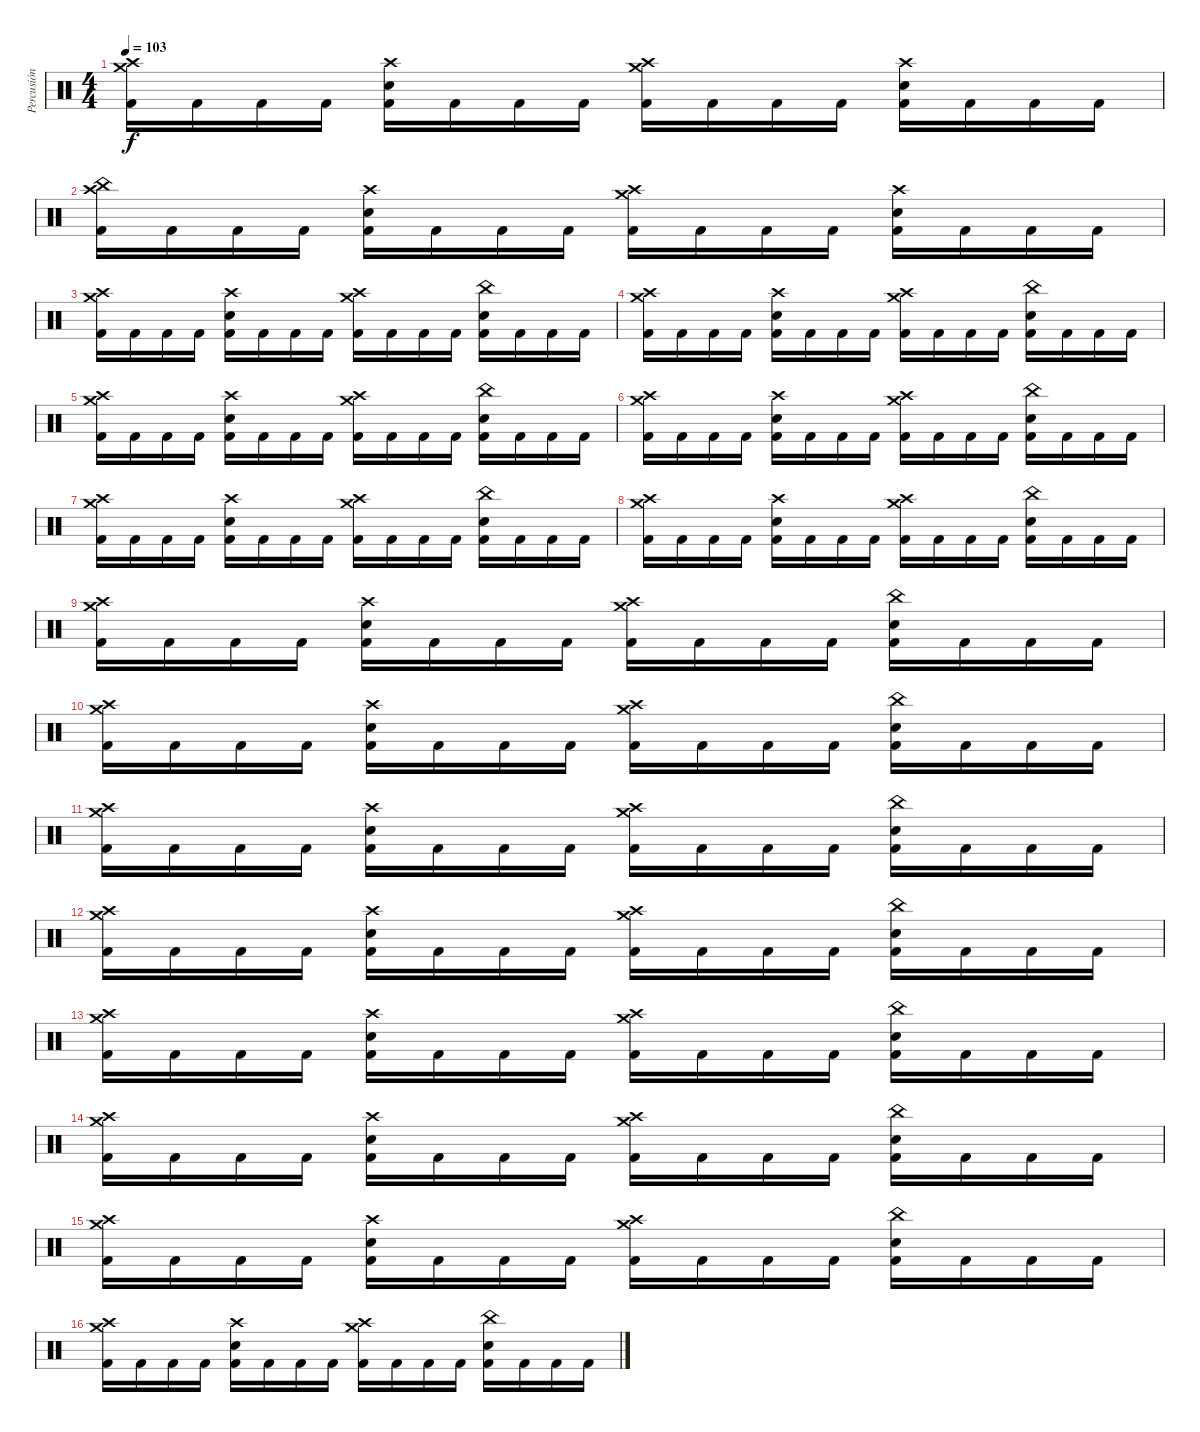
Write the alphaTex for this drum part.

\track ("Percusión" "Percusión") {instrument percussion}
\staff {score}
\articulation defaults
\ts (4 4)
\tempo 103
\clef neutral
\ks c
("Crash high (hit)" "Crash medium (hit)" "Kick (hit) 2").16{dy f} "Kick (hit) 2".16 "Kick (hit) 2".16 "Kick (hit) 2".16 ("Snare (hit) 2" "Crash high (hit)" "Kick (hit) 2").16 "Kick (hit) 2".16 "Kick (hit) 2".16 "Kick (hit) 2".16 ("Crash high (hit)" "Crash medium (hit)" "Kick (hit) 2").16 "Kick (hit) 2".16 "Kick (hit) 2".16 "Kick (hit) 2".16 ("Snare (hit) 2" "Crash high (hit)" "Kick (hit) 2").16 "Kick (hit) 2".16 "Kick (hit) 2".16 "Kick (hit) 2".16 |
("Crash high (hit)" "China (hit)" "Kick (hit) 2").16 "Kick (hit) 2".16 "Kick (hit) 2".16 "Kick (hit) 2".16 ("Snare (hit) 2" "Crash high (hit)" "Kick (hit) 2").16 "Kick (hit) 2".16 "Kick (hit) 2".16 "Kick (hit) 2".16 ("Crash high (hit)" "Crash medium (hit)" "Kick (hit) 2").16 "Kick (hit) 2".16 "Kick (hit) 2".16 "Kick (hit) 2".16 ("Snare (hit) 2" "Crash high (hit)" "Kick (hit) 2").16 "Kick (hit) 2".16 "Kick (hit) 2".16 "Kick (hit) 2".16 |
("Crash high (hit)" "Crash medium (hit)" "Kick (hit) 2").16 "Kick (hit) 2".16 "Kick (hit) 2".16 "Kick (hit) 2".16 ("Snare (hit) 2" "Crash high (hit)" "Kick (hit) 2").16 "Kick (hit) 2".16 "Kick (hit) 2".16 "Kick (hit) 2".16 ("Crash high (hit)" "Crash medium (hit)" "Kick (hit) 2").16 "Kick (hit) 2".16 "Kick (hit) 2".16 "Kick (hit) 2".16 ("Snare (hit) 2" "China (hit)" "Kick (hit) 2").16 "Kick (hit) 2".16 "Kick (hit) 2".16 "Kick (hit) 2".16 |
("Crash high (hit)" "Crash medium (hit)" "Kick (hit) 2").16 "Kick (hit) 2".16 "Kick (hit) 2".16 "Kick (hit) 2".16 ("Snare (hit) 2" "Crash high (hit)" "Kick (hit) 2").16 "Kick (hit) 2".16 "Kick (hit) 2".16 "Kick (hit) 2".16 ("Crash high (hit)" "Crash medium (hit)" "Kick (hit) 2").16 "Kick (hit) 2".16 "Kick (hit) 2".16 "Kick (hit) 2".16 ("Snare (hit) 2" "China (hit)" "Kick (hit) 2").16 "Kick (hit) 2".16 "Kick (hit) 2".16 "Kick (hit) 2".16 |
("Crash high (hit)" "Crash medium (hit)" "Kick (hit) 2").16 "Kick (hit) 2".16 "Kick (hit) 2".16 "Kick (hit) 2".16 ("Snare (hit) 2" "Crash high (hit)" "Kick (hit) 2").16 "Kick (hit) 2".16 "Kick (hit) 2".16 "Kick (hit) 2".16 ("Crash high (hit)" "Crash medium (hit)" "Kick (hit) 2").16 "Kick (hit) 2".16 "Kick (hit) 2".16 "Kick (hit) 2".16 ("Snare (hit) 2" "China (hit)" "Kick (hit) 2").16 "Kick (hit) 2".16 "Kick (hit) 2".16 "Kick (hit) 2".16 |
("Crash high (hit)" "Crash medium (hit)" "Kick (hit) 2").16 "Kick (hit) 2".16 "Kick (hit) 2".16 "Kick (hit) 2".16 ("Snare (hit) 2" "Crash high (hit)" "Kick (hit) 2").16 "Kick (hit) 2".16 "Kick (hit) 2".16 "Kick (hit) 2".16 ("Crash high (hit)" "Crash medium (hit)" "Kick (hit) 2").16 "Kick (hit) 2".16 "Kick (hit) 2".16 "Kick (hit) 2".16 ("Snare (hit) 2" "China (hit)" "Kick (hit) 2").16 "Kick (hit) 2".16 "Kick (hit) 2".16 "Kick (hit) 2".16 |
("Crash high (hit)" "Crash medium (hit)" "Kick (hit) 2").16 "Kick (hit) 2".16 "Kick (hit) 2".16 "Kick (hit) 2".16 ("Snare (hit) 2" "Crash high (hit)" "Kick (hit) 2").16 "Kick (hit) 2".16 "Kick (hit) 2".16 "Kick (hit) 2".16 ("Crash high (hit)" "Crash medium (hit)" "Kick (hit) 2").16 "Kick (hit) 2".16 "Kick (hit) 2".16 "Kick (hit) 2".16 ("Snare (hit) 2" "China (hit)" "Kick (hit) 2").16 "Kick (hit) 2".16 "Kick (hit) 2".16 "Kick (hit) 2".16 |
("Crash high (hit)" "Crash medium (hit)" "Kick (hit) 2").16 "Kick (hit) 2".16 "Kick (hit) 2".16 "Kick (hit) 2".16 ("Snare (hit) 2" "Crash high (hit)" "Kick (hit) 2").16 "Kick (hit) 2".16 "Kick (hit) 2".16 "Kick (hit) 2".16 ("Crash high (hit)" "Crash medium (hit)" "Kick (hit) 2").16 "Kick (hit) 2".16 "Kick (hit) 2".16 "Kick (hit) 2".16 ("Snare (hit) 2" "China (hit)" "Kick (hit) 2").16 "Kick (hit) 2".16 "Kick (hit) 2".16 "Kick (hit) 2".16 |
("Crash high (hit)" "Crash medium (hit)" "Kick (hit) 2").16 "Kick (hit) 2".16 "Kick (hit) 2".16 "Kick (hit) 2".16 ("Snare (hit) 2" "Crash high (hit)" "Kick (hit) 2").16 "Kick (hit) 2".16 "Kick (hit) 2".16 "Kick (hit) 2".16 ("Crash high (hit)" "Crash medium (hit)" "Kick (hit) 2").16 "Kick (hit) 2".16 "Kick (hit) 2".16 "Kick (hit) 2".16 ("Snare (hit) 2" "China (hit)" "Kick (hit) 2").16 "Kick (hit) 2".16 "Kick (hit) 2".16 "Kick (hit) 2".16 |
("Crash high (hit)" "Crash medium (hit)" "Kick (hit) 2").16 "Kick (hit) 2".16 "Kick (hit) 2".16 "Kick (hit) 2".16 ("Snare (hit) 2" "Crash high (hit)" "Kick (hit) 2").16 "Kick (hit) 2".16 "Kick (hit) 2".16 "Kick (hit) 2".16 ("Crash high (hit)" "Crash medium (hit)" "Kick (hit) 2").16 "Kick (hit) 2".16 "Kick (hit) 2".16 "Kick (hit) 2".16 ("Snare (hit) 2" "China (hit)" "Kick (hit) 2").16 "Kick (hit) 2".16 "Kick (hit) 2".16 "Kick (hit) 2".16 |
("Crash high (hit)" "Crash medium (hit)" "Kick (hit) 2").16 "Kick (hit) 2".16 "Kick (hit) 2".16 "Kick (hit) 2".16 ("Snare (hit) 2" "Crash high (hit)" "Kick (hit) 2").16 "Kick (hit) 2".16 "Kick (hit) 2".16 "Kick (hit) 2".16 ("Crash high (hit)" "Crash medium (hit)" "Kick (hit) 2").16 "Kick (hit) 2".16 "Kick (hit) 2".16 "Kick (hit) 2".16 ("Snare (hit) 2" "China (hit)" "Kick (hit) 2").16 "Kick (hit) 2".16 "Kick (hit) 2".16 "Kick (hit) 2".16 |
("Crash high (hit)" "Crash medium (hit)" "Kick (hit) 2").16 "Kick (hit) 2".16 "Kick (hit) 2".16 "Kick (hit) 2".16 ("Snare (hit) 2" "Crash high (hit)" "Kick (hit) 2").16 "Kick (hit) 2".16 "Kick (hit) 2".16 "Kick (hit) 2".16 ("Crash high (hit)" "Crash medium (hit)" "Kick (hit) 2").16 "Kick (hit) 2".16 "Kick (hit) 2".16 "Kick (hit) 2".16 ("Snare (hit) 2" "China (hit)" "Kick (hit) 2").16 "Kick (hit) 2".16 "Kick (hit) 2".16 "Kick (hit) 2".16 |
("Crash high (hit)" "Crash medium (hit)" "Kick (hit) 2").16 "Kick (hit) 2".16 "Kick (hit) 2".16 "Kick (hit) 2".16 ("Snare (hit) 2" "Crash high (hit)" "Kick (hit) 2").16 "Kick (hit) 2".16 "Kick (hit) 2".16 "Kick (hit) 2".16 ("Crash high (hit)" "Crash medium (hit)" "Kick (hit) 2").16 "Kick (hit) 2".16 "Kick (hit) 2".16 "Kick (hit) 2".16 ("Snare (hit) 2" "China (hit)" "Kick (hit) 2").16 "Kick (hit) 2".16 "Kick (hit) 2".16 "Kick (hit) 2".16 |
("Crash high (hit)" "Crash medium (hit)" "Kick (hit) 2").16 "Kick (hit) 2".16 "Kick (hit) 2".16 "Kick (hit) 2".16 ("Snare (hit) 2" "Crash high (hit)" "Kick (hit) 2").16 "Kick (hit) 2".16 "Kick (hit) 2".16 "Kick (hit) 2".16 ("Crash high (hit)" "Crash medium (hit)" "Kick (hit) 2").16 "Kick (hit) 2".16 "Kick (hit) 2".16 "Kick (hit) 2".16 ("Snare (hit) 2" "China (hit)" "Kick (hit) 2").16 "Kick (hit) 2".16 "Kick (hit) 2".16 "Kick (hit) 2".16 |
("Crash high (hit)" "Crash medium (hit)" "Kick (hit) 2").16 "Kick (hit) 2".16 "Kick (hit) 2".16 "Kick (hit) 2".16 ("Snare (hit) 2" "Crash high (hit)" "Kick (hit) 2").16 "Kick (hit) 2".16 "Kick (hit) 2".16 "Kick (hit) 2".16 ("Crash high (hit)" "Crash medium (hit)" "Kick (hit) 2").16 "Kick (hit) 2".16 "Kick (hit) 2".16 "Kick (hit) 2".16 ("Snare (hit) 2" "China (hit)" "Kick (hit) 2").16 "Kick (hit) 2".16 "Kick (hit) 2".16 "Kick (hit) 2".16 |
("Crash high (hit)" "Crash medium (hit)" "Kick (hit) 2").16 "Kick (hit) 2".16 "Kick (hit) 2".16 "Kick (hit) 2".16 ("Snare (hit) 2" "Crash high (hit)" "Kick (hit) 2").16 "Kick (hit) 2".16 "Kick (hit) 2".16 "Kick (hit) 2".16 ("Crash high (hit)" "Crash medium (hit)" "Kick (hit) 2").16 "Kick (hit) 2".16 "Kick (hit) 2".16 "Kick (hit) 2".16 ("Snare (hit) 2" "China (hit)" "Kick (hit) 2").16 "Kick (hit) 2".16 "Kick (hit) 2".16 "Kick (hit) 2".16
